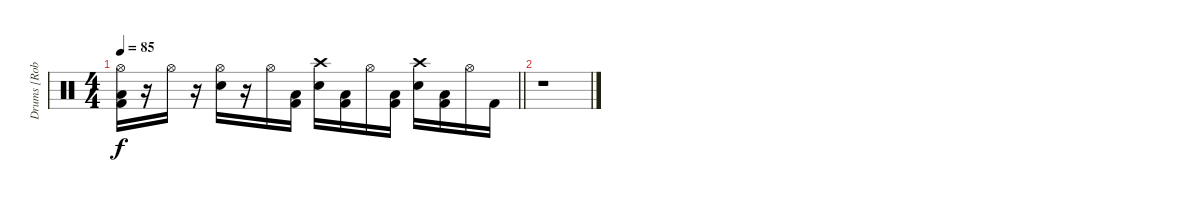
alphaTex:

\track ("Drums [Rob Bourdon]" "Drums [Rob") {instrument percussion}
\staff {score}
\articulation defaults
\ts (4 4)
\tempo 85
\clef neutral
\barLineRight lightlight
\ks c
("Hi-Hat (open)" "Low Floor Tom (hit)" "Kick (hit) 2").16{dy f} r.16 "Hi-Hat (open)".16 r.16 ("Hi-Hat (open)" "Snare (hit) 2").16 r.16 "Hi-Hat (open)".16 ("Low Floor Tom (hit)" "Kick (hit) 2").16 ("Crash high (hit)" "Snare (hit) 2").16 ("Low Floor Tom (hit)" "Kick (hit) 2").16 "Hi-Hat (open)".16 ("Low Floor Tom (hit)" "Kick (hit) 2").16 ("Crash high (hit)" "Snare (hit) 2").16 ("Low Floor Tom (hit)" "Kick (hit) 2").16 "Hi-Hat (open)".16 "Kick (hit) 2".16 |
r.1
